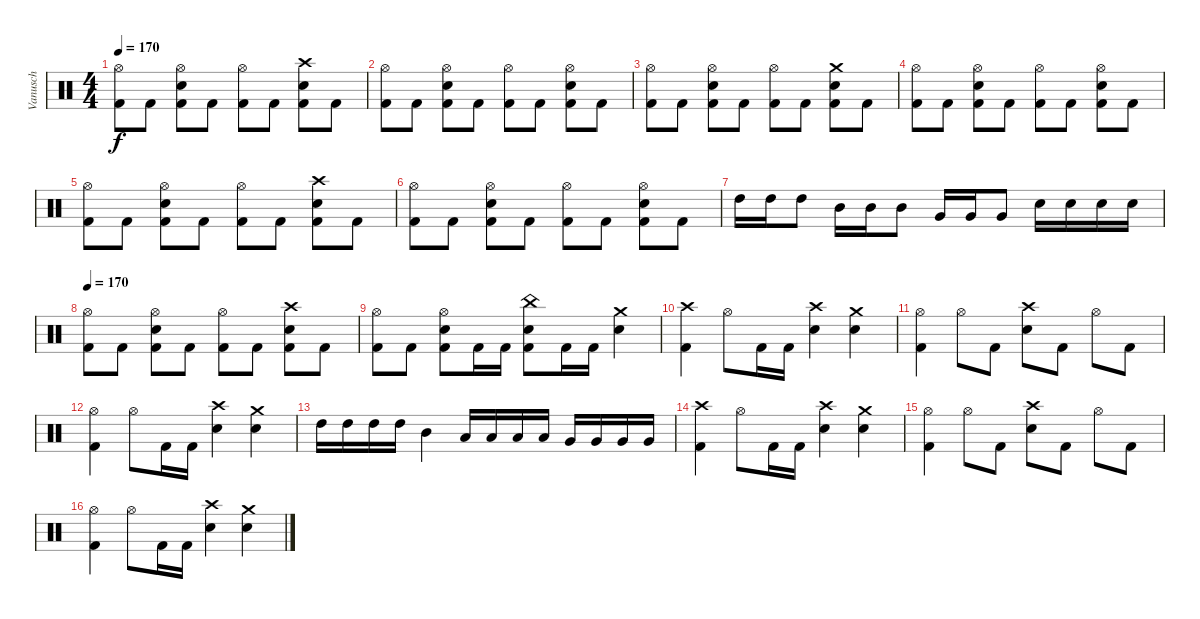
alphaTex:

\track ("Vanusch" "Vanusch") {instrument percussion}
\staff {score}
\articulation defaults
\ts (4 4)
\tempo 170
\clef neutral
\ks c
("Hi-Hat (open)" "Kick (hit) 2").8{dy f} "Kick (hit) 2".8 ("Hi-Hat (open)" "Snare (hit) 2" "Kick (hit) 2").8 "Kick (hit) 2".8 ("Hi-Hat (open)" "Kick (hit) 2").8 "Kick (hit) 2".8 ("Crash high (hit)" "Snare (hit) 2" "Kick (hit) 2").8 "Kick (hit) 2".8 |
("Hi-Hat (open)" "Kick (hit) 2").8 "Kick (hit) 2".8 ("Hi-Hat (open)" "Snare (hit) 2" "Kick (hit) 2").8 "Kick (hit) 2".8 ("Hi-Hat (open)" "Kick (hit) 2").8 "Kick (hit) 2".8 ("Hi-Hat (open)" "Snare (hit) 2" "Kick (hit) 2").8 "Kick (hit) 2".8 |
("Hi-Hat (open)" "Kick (hit) 2").8 "Kick (hit) 2".8 ("Hi-Hat (open)" "Snare (hit) 2" "Kick (hit) 2").8 "Kick (hit) 2".8 ("Hi-Hat (open)" "Kick (hit) 2").8 "Kick (hit) 2".8 ("Crash medium (hit)" "Snare (hit) 2" "Kick (hit) 2").8 "Kick (hit) 2".8 |
("Hi-Hat (open)" "Kick (hit) 2").8 "Kick (hit) 2".8 ("Hi-Hat (open)" "Snare (hit) 2" "Kick (hit) 2").8 "Kick (hit) 2".8 ("Hi-Hat (open)" "Kick (hit) 2").8 "Kick (hit) 2".8 ("Hi-Hat (open)" "Snare (hit) 2" "Kick (hit) 2").8 "Kick (hit) 2".8 |
("Hi-Hat (open)" "Kick (hit) 2").8 "Kick (hit) 2".8 ("Hi-Hat (open)" "Snare (hit) 2" "Kick (hit) 2").8 "Kick (hit) 2".8 ("Hi-Hat (open)" "Kick (hit) 2").8 "Kick (hit) 2".8 ("Crash high (hit)" "Snare (hit) 2" "Kick (hit) 2").8 "Kick (hit) 2".8 |
("Hi-Hat (open)" "Kick (hit) 2").8 "Kick (hit) 2".8 ("Hi-Hat (open)" "Snare (hit) 2" "Kick (hit) 2").8 "Kick (hit) 2".8 ("Hi-Hat (open)" "Kick (hit) 2").8 "Kick (hit) 2".8 ("Hi-Hat (open)" "Snare (hit) 2" "Kick (hit) 2").8 "Kick (hit) 2".8 |
"High Tom (hit)".16 "High Tom (hit)".16 "High Tom (hit)".8 "Mid Tom (hit)".16 "Mid Tom (hit)".16 "Mid Tom (hit)".8 "Very Low Tom (hit)".16 "Very Low Tom (hit)".16 "Very Low Tom (hit)".8 "Snare (hit) 2".16 "Snare (hit) 2".16 "Snare (hit) 2".16 "Snare (hit) 2".16 |
\tempo 170
("Hi-Hat (open)" "Kick (hit) 2").8 "Kick (hit) 2".8 ("Hi-Hat (open)" "Snare (hit) 2" "Kick (hit) 2").8 "Kick (hit) 2".8 ("Hi-Hat (open)" "Kick (hit) 2").8 "Kick (hit) 2".8 ("Crash high (hit)" "Snare (hit) 2" "Kick (hit) 2").8 "Kick (hit) 2".8 |
("Hi-Hat (open)" "Kick (hit) 2").8 "Kick (hit) 2".8 ("Hi-Hat (open)" "Snare (hit) 2" "Kick (hit) 2").8 "Kick (hit) 2".16 "Kick (hit) 2".16 ("China (hit)" "Snare (hit) 2" "Kick (hit) 2").8 "Kick (hit) 2".16 "Kick (hit) 2".16 ("Crash medium (hit)" "Snare (hit) 2").4 |
("Crash high (hit)" "Kick (hit) 2").4 "Hi-Hat (open)".8 "Kick (hit) 2".16 "Kick (hit) 2".16 ("Crash high (hit)" "Snare (hit) 2").4 ("Crash medium (hit)" "Snare (hit) 2").4 |
("Hi-Hat (open)" "Kick (hit) 2").4 "Hi-Hat (open)".8 "Kick (hit) 2".8 ("Crash high (hit)" "Snare (hit) 2").8 "Kick (hit) 2".8 "Hi-Hat (open)".8 "Kick (hit) 2".8 |
("Hi-Hat (open)" "Kick (hit) 2").4 "Hi-Hat (open)".8 "Kick (hit) 2".16 "Kick (hit) 2".16 ("Crash high (hit)" "Snare (hit) 2").4 ("Crash medium (hit)" "Snare (hit) 2").4 |
"High Tom (hit)".16 "High Tom (hit)".16 "High Tom (hit)".16 "High Tom (hit)".16 "Mid Tom (hit)".4 "Low Tom (hit)".16 "Low Tom (hit)".16 "Low Tom (hit)".16 "Low Tom (hit)".16 "Very Low Tom (hit)".16 "Very Low Tom (hit)".16 "Very Low Tom (hit)".16 "Very Low Tom (hit)".16 |
("Crash high (hit)" "Kick (hit) 2").4 "Hi-Hat (open)".8 "Kick (hit) 2".16 "Kick (hit) 2".16 ("Crash high (hit)" "Snare (hit) 2").4 ("Crash medium (hit)" "Snare (hit) 2").4 |
("Hi-Hat (open)" "Kick (hit) 2").4 "Hi-Hat (open)".8 "Kick (hit) 2".8 ("Crash high (hit)" "Snare (hit) 2").8 "Kick (hit) 2".8 "Hi-Hat (open)".8 "Kick (hit) 2".8 |
("Hi-Hat (open)" "Kick (hit) 2").4 "Hi-Hat (open)".8 "Kick (hit) 2".16 "Kick (hit) 2".16 ("Crash high (hit)" "Snare (hit) 2").4 ("Crash medium (hit)" "Snare (hit) 2").4
